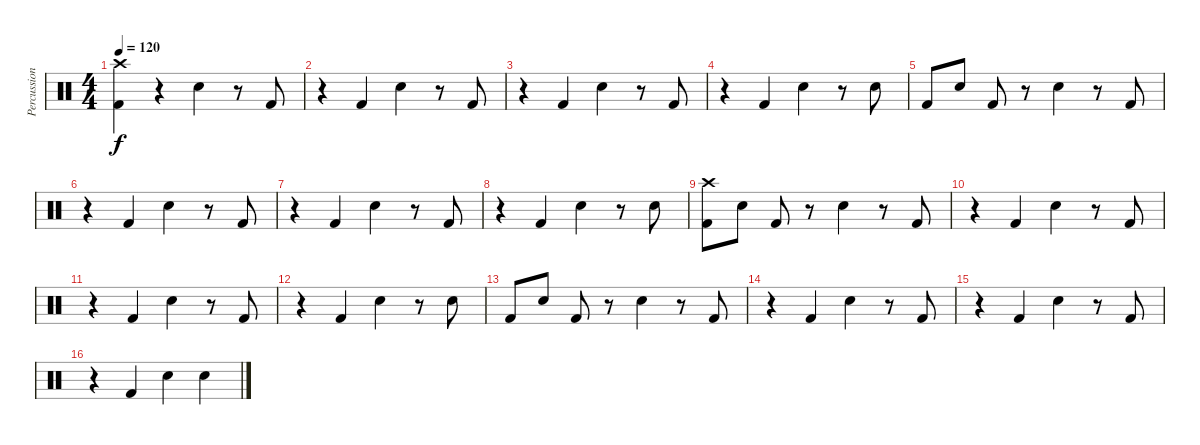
\track ("Percussion" "Percussion") {instrument percussion}
\staff {score}
\articulation defaults
\ts (4 4)
\tempo 120
\clef neutral
\ks c
("Crash high (hit)" "Kick (hit) 2").4{dy f} r.4 "Electric Snare (hit)".4 r.8 "Kick (hit) 2".8 |
r.4 "Kick (hit) 2".4 "Electric Snare (hit)".4 r.8 "Kick (hit) 2".8 |
r.4 "Kick (hit) 2".4 "Electric Snare (hit)".4 r.8 "Kick (hit) 2".8 |
r.4 "Kick (hit) 2".4 "Electric Snare (hit)".4 r.8 "Electric Snare (hit)".8 |
"Kick (hit) 2".8 "Electric Snare (hit)".8 "Kick (hit) 2".8 r.8 "Electric Snare (hit)".4 r.8 "Kick (hit) 2".8 |
r.4 "Kick (hit) 2".4 "Electric Snare (hit)".4 r.8 "Kick (hit) 2".8 |
r.4 "Kick (hit) 2".4 "Electric Snare (hit)".4 r.8 "Kick (hit) 2".8 |
r.4 "Kick (hit) 2".4 "Electric Snare (hit)".4 r.8 "Electric Snare (hit)".8 |
("Crash high (hit)" "Kick (hit) 2").8 "Electric Snare (hit)".8 "Kick (hit) 2".8 r.8 "Electric Snare (hit)".4 r.8 "Kick (hit) 2".8 |
r.4 "Kick (hit) 2".4 "Electric Snare (hit)".4 r.8 "Kick (hit) 2".8 |
r.4 "Kick (hit) 2".4 "Electric Snare (hit)".4 r.8 "Kick (hit) 2".8 |
r.4 "Kick (hit) 2".4 "Electric Snare (hit)".4 r.8 "Electric Snare (hit)".8 |
"Kick (hit) 2".8 "Electric Snare (hit)".8 "Kick (hit) 2".8 r.8 "Electric Snare (hit)".4 r.8 "Kick (hit) 2".8 |
r.4 "Kick (hit) 2".4 "Electric Snare (hit)".4 r.8 "Kick (hit) 2".8 |
r.4 "Kick (hit) 2".4 "Electric Snare (hit)".4 r.8 "Kick (hit) 2".8 |
r.4 "Kick (hit) 2".4 "Electric Snare (hit)".4 "Electric Snare (hit)".4
